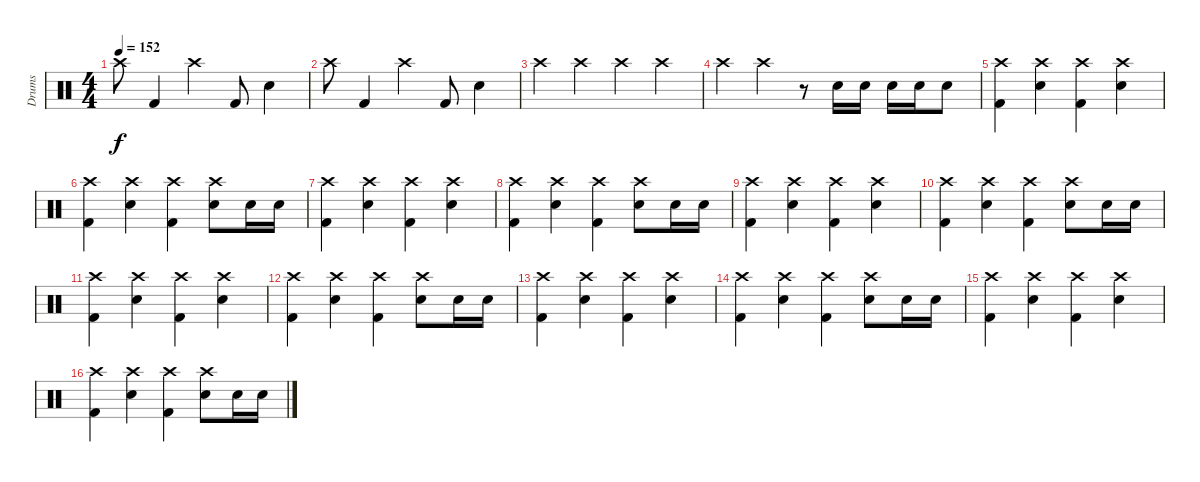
\track ("Drums" "Drums") {instrument percussion}
\staff {score}
\articulation defaults
\ts (4 4)
\tempo 152
\clef neutral
\ks c "Crash high (hit)".8{dy f} "Kick (hit) 2".4 "Crash high (hit)".4 "Kick (hit) 2".8 "Electric Snare (hit)".4
|
"Crash high (hit)".8 "Kick (hit) 2".4 "Crash high (hit)".4 "Kick (hit) 2".8 "Electric Snare (hit)".4 |
"Crash high (hit)".4 "Crash high (hit)".4 "Crash high (hit)".4 "Crash high (hit)".4 |
"Crash high (hit)".4 "Crash high (hit)".4 r.8 "Electric Snare (hit)".16 "Electric Snare (hit)".16 "Electric Snare (hit)".16 "Electric Snare (hit)".16 "Electric Snare (hit)".8 |
("Crash high (hit)" "Kick (hit) 2").4 ("Crash high (hit)" "Electric Snare (hit)").4 ("Crash high (hit)" "Kick (hit) 2").4 ("Crash high (hit)" "Electric Snare (hit)").4 |
("Crash high (hit)" "Kick (hit) 2").4 ("Crash high (hit)" "Electric Snare (hit)").4 ("Crash high (hit)" "Kick (hit) 2").4 ("Crash high (hit)" "Electric Snare (hit)").8 "Electric Snare (hit)".16 "Electric Snare (hit)".16 |
("Crash high (hit)" "Kick (hit) 2").4 ("Crash high (hit)" "Electric Snare (hit)").4 ("Crash high (hit)" "Kick (hit) 2").4 ("Crash high (hit)" "Electric Snare (hit)").4 |
("Crash high (hit)" "Kick (hit) 2").4 ("Crash high (hit)" "Electric Snare (hit)").4 ("Crash high (hit)" "Kick (hit) 2").4 ("Crash high (hit)" "Electric Snare (hit)").8 "Electric Snare (hit)".16 "Electric Snare (hit)".16 |
("Crash high (hit)" "Kick (hit) 2").4 ("Crash high (hit)" "Electric Snare (hit)").4 ("Crash high (hit)" "Kick (hit) 2").4 ("Crash high (hit)" "Electric Snare (hit)").4 |
("Crash high (hit)" "Kick (hit) 2").4 ("Crash high (hit)" "Electric Snare (hit)").4 ("Crash high (hit)" "Kick (hit) 2").4 ("Crash high (hit)" "Electric Snare (hit)").8 "Electric Snare (hit)".16 "Electric Snare (hit)".16 |
("Crash high (hit)" "Kick (hit) 2").4 ("Crash high (hit)" "Electric Snare (hit)").4 ("Crash high (hit)" "Kick (hit) 2").4 ("Crash high (hit)" "Electric Snare (hit)").4 |
("Crash high (hit)" "Kick (hit) 2").4 ("Crash high (hit)" "Electric Snare (hit)").4 ("Crash high (hit)" "Kick (hit) 2").4 ("Crash high (hit)" "Electric Snare (hit)").8 "Electric Snare (hit)".16 "Electric Snare (hit)".16 |
("Crash high (hit)" "Kick (hit) 2").4 ("Crash high (hit)" "Electric Snare (hit)").4 ("Crash high (hit)" "Kick (hit) 2").4 ("Crash high (hit)" "Electric Snare (hit)").4 |
("Crash high (hit)" "Kick (hit) 2").4 ("Crash high (hit)" "Electric Snare (hit)").4 ("Crash high (hit)" "Kick (hit) 2").4 ("Crash high (hit)" "Electric Snare (hit)").8 "Electric Snare (hit)".16 "Electric Snare (hit)".16 |
("Crash high (hit)" "Kick (hit) 2").4 ("Crash high (hit)" "Electric Snare (hit)").4 ("Crash high (hit)" "Kick (hit) 2").4 ("Crash high (hit)" "Electric Snare (hit)").4 |
("Crash high (hit)" "Kick (hit) 2").4 ("Crash high (hit)" "Electric Snare (hit)").4 ("Crash high (hit)" "Kick (hit) 2").4 ("Crash high (hit)" "Electric Snare (hit)").8 "Electric Snare (hit)".16 "Electric Snare (hit)".16
